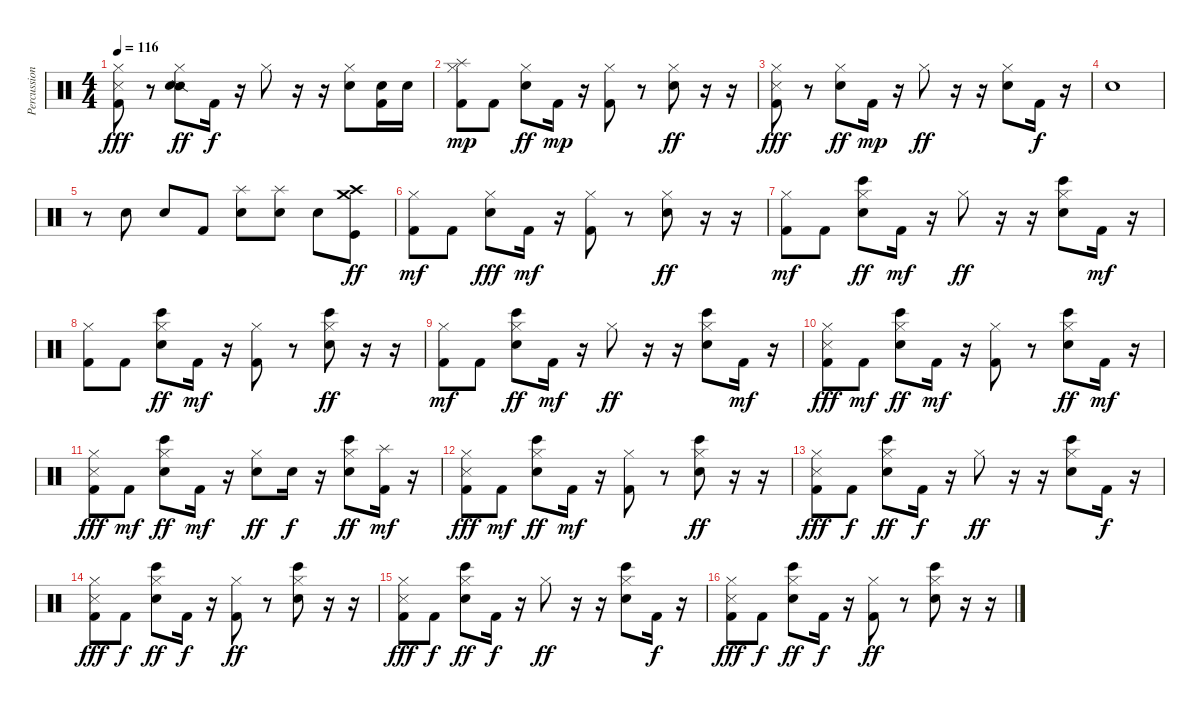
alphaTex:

\track ("Percussion" "Percussion") {instrument percussion}
\staff {score}
\articulation defaults
\ts (4 4)
\tempo 116
\clef neutral
\ks c
("Hi-Hat (closed)" "Kick (hit) 2" "Snare (side stick) 3").8{dy fff} r.8 ("Hi-Hat (closed)" "Snare (side stick) 2" "Electric Snare (hit)").8{dy ff} "Kick (hit) 2".16{dy f} r.16 "Hi-Hat (closed)".8 r.16 r.16 ("Hi-Hat (closed)" "Electric Snare (hit)").8 ("Kick (hit) 2" "Snare (hit) 2").16 "Snare (hit) 2".16 |
("Hi-Hat (closed)" "Kick (hit) 2" "Splash (hit)").8{dy mp} "Kick (hit) 2".8 ("Hi-Hat (closed)" "Electric Snare (hit)").8{dy ff} "Kick (hit) 2".16{dy mp} r.16 ("Hi-Hat (closed)" "Kick (hit) 2").8 r.8 ("Hi-Hat (closed)" "Electric Snare (hit)").8{dy ff} r.16 r.16 |
("Hi-Hat (closed)" "Kick (hit) 2" "Snare (side stick) 3").8{dy fff} r.8 ("Hi-Hat (closed)" "Electric Snare (hit)").8{dy ff} "Kick (hit) 2".16{dy mp} r.16 "Hi-Hat (closed)".8{dy ff} r.16 r.16 ("Hi-Hat (closed)" "Electric Snare (hit)").8 "Kick (hit) 2".16{dy f} r.16 |
"Electric Snare (hit)".1 |
r.8 "Electric Snare (hit)".8 "Electric Snare (hit)".8 "Kick (hit) 2".8 ("Splash (hit)" "Electric Snare (hit)").8 ("Splash (hit)" "Electric Snare (hit)").8 "Electric Snare (hit)".8 ("Crash high (hit)" "Crash medium (hit)" "Kick (hit)").8{dy ff} |
("Hi-Hat (closed)" "Kick (hit) 2").8{dy mf} "Kick (hit) 2".8 ("Hi-Hat (closed)" "Electric Snare (hit)").8{dy fff} "Kick (hit) 2".16{dy mf} r.16 ("Hi-Hat (closed)" "Kick (hit) 2").8 r.8 ("Hi-Hat (closed)" "Electric Snare (hit)").8{dy ff} r.16 r.16 |
("Hi-Hat (closed)" "Kick (hit) 2").8{dy mf} "Kick (hit) 2".8 ("Hi-Hat (closed)" "Electric Snare (hit)" "Bongo High (hit)").8{dy ff} "Kick (hit) 2".16{dy mf} r.16 "Hi-Hat (closed)".8{dy ff} r.16 r.16 ("Hi-Hat (closed)" "Electric Snare (hit)" "Bongo High (hit)").8 "Kick (hit) 2".16{dy mf} r.16 |
("Hi-Hat (closed)" "Kick (hit) 2").8 "Kick (hit) 2".8 ("Hi-Hat (closed)" "Electric Snare (hit)" "Bongo High (hit)").8{dy ff} "Kick (hit) 2".16{dy mf} r.16 ("Hi-Hat (closed)" "Kick (hit) 2").8 r.8 ("Hi-Hat (closed)" "Electric Snare (hit)" "Bongo High (hit)").8{dy ff} r.16 r.16 |
("Hi-Hat (closed)" "Kick (hit) 2").8{dy mf} "Kick (hit) 2".8 ("Hi-Hat (closed)" "Electric Snare (hit)" "Bongo High (hit)").8{dy ff} "Kick (hit) 2".16{dy mf} r.16 "Hi-Hat (closed)".8{dy ff} r.16 r.16 ("Hi-Hat (closed)" "Electric Snare (hit)" "Bongo High (hit)").8 "Kick (hit) 2".16{dy mf} r.16 |
("Hi-Hat (closed)" "Kick (hit) 2" "Snare (side stick) 3").8{dy fff} "Kick (hit) 2".8{dy mf} ("Hi-Hat (closed)" "Electric Snare (hit)" "Bongo High (hit)").8{dy ff} "Kick (hit) 2".16{dy mf} r.16 ("Hi-Hat (closed)" "Kick (hit) 2").8 r.8 ("Hi-Hat (closed)" "Electric Snare (hit)" "Bongo High (hit)").8{dy ff} "Kick (hit) 2".16{dy mf} r.16 |
("Hi-Hat (closed)" "Kick (hit) 2" "Snare (side stick) 3").8{dy fff} "Kick (hit) 2".8{dy mf} ("Hi-Hat (closed)" "Electric Snare (hit)" "Bongo High (hit)").8{dy ff} "Kick (hit) 2".16{dy mf} r.16 ("Hi-Hat (closed)" "Electric Snare (hit)").8{dy ff} "Electric Snare (hit)".16{dy f} r.16 ("Hi-Hat (closed)" "Electric Snare (hit)" "Bongo High (hit)").8{dy ff} ("Kick (hit) 2" "Splash (hit)").16{dy mf} r.16 |
("Hi-Hat (closed)" "Kick (hit) 2" "Snare (side stick) 3").8{dy fff} "Kick (hit) 2".8{dy mf} ("Hi-Hat (closed)" "Electric Snare (hit)" "Bongo High (hit)").8{dy ff} "Kick (hit) 2".16{dy mf} r.16 ("Hi-Hat (closed)" "Kick (hit) 2").8 r.8 ("Hi-Hat (closed)" "Electric Snare (hit)" "Bongo High (hit)").8{dy ff} r.16 r.16 |
("Hi-Hat (closed)" "Kick (hit) 2" "Snare (side stick) 3").8{dy fff} "Kick (hit) 2".8{dy f} ("Hi-Hat (closed)" "Electric Snare (hit)" "Bongo High (hit)").8{dy ff} "Kick (hit) 2".16{dy f} r.16 "Hi-Hat (closed)".8{dy ff} r.16 r.16 ("Hi-Hat (closed)" "Electric Snare (hit)" "Bongo High (hit)").8 "Kick (hit) 2".16{dy f} r.16 |
("Hi-Hat (closed)" "Kick (hit) 2" "Snare (side stick) 3").8{dy fff} "Kick (hit) 2".8{dy f} ("Hi-Hat (closed)" "Electric Snare (hit)" "Bongo High (hit)").8{dy ff} "Kick (hit) 2".16{dy f} r.16 ("Hi-Hat (closed)" "Kick (hit) 2").8{dy ff} r.8 ("Hi-Hat (closed)" "Electric Snare (hit)" "Bongo High (hit)").8 r.16 r.16 |
("Hi-Hat (closed)" "Kick (hit) 2" "Snare (side stick) 3").8{dy fff} "Kick (hit) 2".8{dy f} ("Hi-Hat (closed)" "Electric Snare (hit)" "Bongo High (hit)").8{dy ff} "Kick (hit) 2".16{dy f} r.16 "Hi-Hat (closed)".8{dy ff} r.16 r.16 ("Hi-Hat (closed)" "Electric Snare (hit)" "Bongo High (hit)").8 "Kick (hit) 2".16{dy f} r.16 |
("Hi-Hat (closed)" "Kick (hit) 2" "Snare (side stick) 3").8{dy fff} "Kick (hit) 2".8{dy f} ("Hi-Hat (closed)" "Electric Snare (hit)" "Bongo High (hit)").8{dy ff} "Kick (hit) 2".16{dy f} r.16 ("Hi-Hat (closed)" "Kick (hit) 2").8{dy ff} r.8 ("Hi-Hat (closed)" "Electric Snare (hit)" "Bongo High (hit)").8 r.16 r.16
